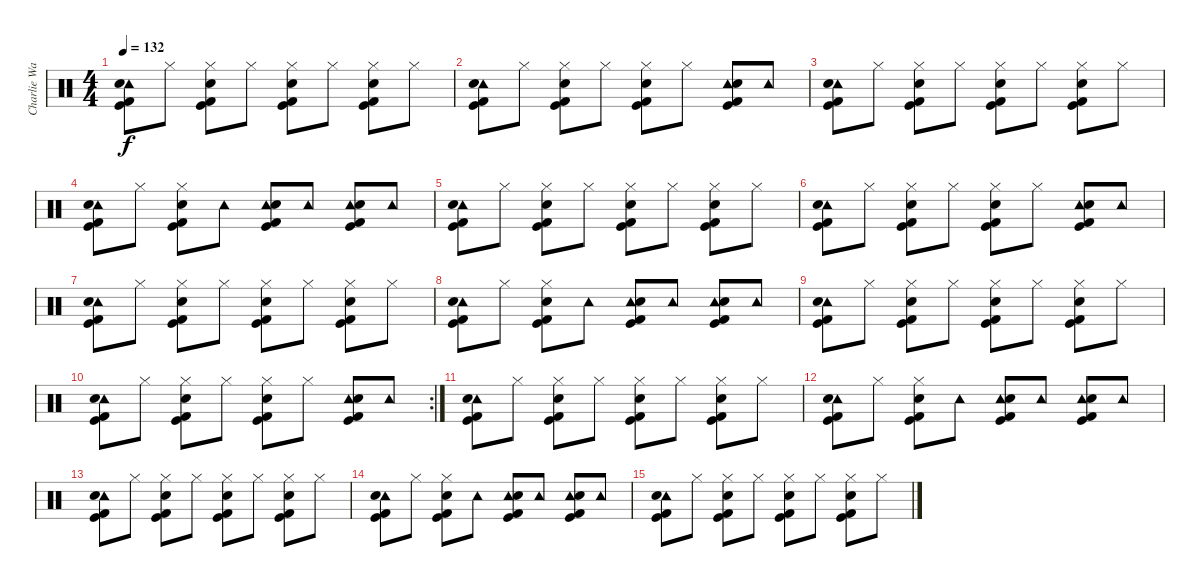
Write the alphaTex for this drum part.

\track ("Charlie Watts" "Charlie Wa") {instrument percussion}
\staff {score}
\articulation defaults
\ts (4 4)
\tempo 132
\clef neutral
\ks c
("Tambourine (hit)" "Electric Snare (hit)" "Kick (hit) 2" "Kick (hit)").8{dy f} "Hi-Hat (closed)".8 ("Hi-Hat (closed)" "Electric Snare (hit)" "Kick (hit) 2" "Kick (hit)").8 "Hi-Hat (closed)".8 ("Hi-Hat (closed)" "Electric Snare (hit)" "Kick (hit) 2" "Kick (hit)").8 "Hi-Hat (closed)".8 ("Hi-Hat (closed)" "Electric Snare (hit)" "Kick (hit) 2" "Kick (hit)").8 "Hi-Hat (closed)".8 |
("Tambourine (hit)" "Electric Snare (hit)" "Kick (hit) 2" "Kick (hit)").8 "Hi-Hat (closed)".8 ("Hi-Hat (closed)" "Electric Snare (hit)" "Kick (hit) 2" "Kick (hit)").8 "Hi-Hat (closed)".8 ("Hi-Hat (closed)" "Electric Snare (hit)" "Kick (hit) 2" "Kick (hit)").8 "Hi-Hat (closed)".8 ("Tambourine (hit)" "Electric Snare (hit)" "Kick (hit) 2" "Kick (hit)").8 "Tambourine (hit)".8 |
("Tambourine (hit)" "Electric Snare (hit)" "Kick (hit) 2" "Kick (hit)").8 "Hi-Hat (closed)".8 ("Hi-Hat (closed)" "Electric Snare (hit)" "Kick (hit) 2" "Kick (hit)").8 "Hi-Hat (closed)".8 ("Hi-Hat (closed)" "Electric Snare (hit)" "Kick (hit) 2" "Kick (hit)").8 "Hi-Hat (closed)".8 ("Hi-Hat (closed)" "Electric Snare (hit)" "Kick (hit) 2" "Kick (hit)").8 "Hi-Hat (closed)".8 |
("Tambourine (hit)" "Electric Snare (hit)" "Kick (hit) 2" "Kick (hit)").8 "Hi-Hat (closed)".8 ("Hi-Hat (closed)" "Electric Snare (hit)" "Kick (hit) 2" "Kick (hit)").8 "Tambourine (hit)".8 ("Tambourine (hit)" "Electric Snare (hit)" "Kick (hit) 2" "Kick (hit)").8 "Tambourine (hit)".8 ("Tambourine (hit)" "Electric Snare (hit)" "Kick (hit) 2" "Kick (hit)").8 "Tambourine (hit)".8 |
("Tambourine (hit)" "Electric Snare (hit)" "Kick (hit) 2" "Kick (hit)").8 "Hi-Hat (closed)".8 ("Hi-Hat (closed)" "Electric Snare (hit)" "Kick (hit) 2" "Kick (hit)").8 "Hi-Hat (closed)".8 ("Hi-Hat (closed)" "Electric Snare (hit)" "Kick (hit) 2" "Kick (hit)").8 "Hi-Hat (closed)".8 ("Hi-Hat (closed)" "Electric Snare (hit)" "Kick (hit) 2" "Kick (hit)").8 "Hi-Hat (closed)".8 |
("Tambourine (hit)" "Electric Snare (hit)" "Kick (hit) 2" "Kick (hit)").8 "Hi-Hat (closed)".8 ("Hi-Hat (closed)" "Electric Snare (hit)" "Kick (hit) 2" "Kick (hit)").8 "Hi-Hat (closed)".8 ("Hi-Hat (closed)" "Electric Snare (hit)" "Kick (hit) 2" "Kick (hit)").8 "Hi-Hat (closed)".8 ("Tambourine (hit)" "Electric Snare (hit)" "Kick (hit) 2" "Kick (hit)").8 "Tambourine (hit)".8 |
("Tambourine (hit)" "Electric Snare (hit)" "Kick (hit) 2" "Kick (hit)").8 "Hi-Hat (closed)".8 ("Hi-Hat (closed)" "Electric Snare (hit)" "Kick (hit) 2" "Kick (hit)").8 "Hi-Hat (closed)".8 ("Hi-Hat (closed)" "Electric Snare (hit)" "Kick (hit) 2" "Kick (hit)").8 "Hi-Hat (closed)".8 ("Hi-Hat (closed)" "Electric Snare (hit)" "Kick (hit) 2" "Kick (hit)").8 "Hi-Hat (closed)".8 |
("Tambourine (hit)" "Electric Snare (hit)" "Kick (hit) 2" "Kick (hit)").8 "Hi-Hat (closed)".8 ("Hi-Hat (closed)" "Electric Snare (hit)" "Kick (hit) 2" "Kick (hit)").8 "Tambourine (hit)".8 ("Tambourine (hit)" "Electric Snare (hit)" "Kick (hit) 2" "Kick (hit)").8 "Tambourine (hit)".8 ("Tambourine (hit)" "Electric Snare (hit)" "Kick (hit) 2" "Kick (hit)").8 "Tambourine (hit)".8 |
("Tambourine (hit)" "Electric Snare (hit)" "Kick (hit) 2" "Kick (hit)").8 "Hi-Hat (closed)".8 ("Hi-Hat (closed)" "Electric Snare (hit)" "Kick (hit) 2" "Kick (hit)").8 "Hi-Hat (closed)".8 ("Hi-Hat (closed)" "Electric Snare (hit)" "Kick (hit) 2" "Kick (hit)").8 "Hi-Hat (closed)".8 ("Hi-Hat (closed)" "Electric Snare (hit)" "Kick (hit) 2" "Kick (hit)").8 "Hi-Hat (closed)".8 |
\rc 2
("Tambourine (hit)" "Electric Snare (hit)" "Kick (hit) 2" "Kick (hit)").8 "Hi-Hat (closed)".8 ("Hi-Hat (closed)" "Electric Snare (hit)" "Kick (hit) 2" "Kick (hit)").8 "Hi-Hat (closed)".8 ("Hi-Hat (closed)" "Electric Snare (hit)" "Kick (hit) 2" "Kick (hit)").8 "Hi-Hat (closed)".8 ("Tambourine (hit)" "Electric Snare (hit)" "Kick (hit) 2" "Kick (hit)").8 "Tambourine (hit)".8 |
("Tambourine (hit)" "Electric Snare (hit)" "Kick (hit) 2" "Kick (hit)").8 "Hi-Hat (closed)".8 ("Hi-Hat (closed)" "Electric Snare (hit)" "Kick (hit) 2" "Kick (hit)").8 "Hi-Hat (closed)".8 ("Hi-Hat (closed)" "Electric Snare (hit)" "Kick (hit) 2" "Kick (hit)").8 "Hi-Hat (closed)".8 ("Hi-Hat (closed)" "Electric Snare (hit)" "Kick (hit) 2" "Kick (hit)").8 "Hi-Hat (closed)".8 |
("Tambourine (hit)" "Electric Snare (hit)" "Kick (hit) 2" "Kick (hit)").8 "Hi-Hat (closed)".8 ("Hi-Hat (closed)" "Electric Snare (hit)" "Kick (hit) 2" "Kick (hit)").8 "Tambourine (hit)".8 ("Tambourine (hit)" "Electric Snare (hit)" "Kick (hit) 2" "Kick (hit)").8 "Tambourine (hit)".8 ("Tambourine (hit)" "Electric Snare (hit)" "Kick (hit) 2" "Kick (hit)").8 "Tambourine (hit)".8 |
("Tambourine (hit)" "Electric Snare (hit)" "Kick (hit) 2" "Kick (hit)").8 "Hi-Hat (closed)".8 ("Hi-Hat (closed)" "Electric Snare (hit)" "Kick (hit) 2" "Kick (hit)").8 "Hi-Hat (closed)".8 ("Hi-Hat (closed)" "Electric Snare (hit)" "Kick (hit) 2" "Kick (hit)").8 "Hi-Hat (closed)".8 ("Hi-Hat (closed)" "Electric Snare (hit)" "Kick (hit) 2" "Kick (hit)").8 "Hi-Hat (closed)".8 |
("Tambourine (hit)" "Electric Snare (hit)" "Kick (hit) 2" "Kick (hit)").8 "Hi-Hat (closed)".8 ("Hi-Hat (closed)" "Electric Snare (hit)" "Kick (hit) 2" "Kick (hit)").8 "Tambourine (hit)".8 ("Tambourine (hit)" "Electric Snare (hit)" "Kick (hit) 2" "Kick (hit)").8 "Tambourine (hit)".8 ("Tambourine (hit)" "Electric Snare (hit)" "Kick (hit) 2" "Kick (hit)").8 "Tambourine (hit)".8 |
("Tambourine (hit)" "Electric Snare (hit)" "Kick (hit) 2" "Kick (hit)").8 "Hi-Hat (closed)".8 ("Hi-Hat (closed)" "Electric Snare (hit)" "Kick (hit) 2" "Kick (hit)").8 "Hi-Hat (closed)".8 ("Hi-Hat (closed)" "Electric Snare (hit)" "Kick (hit) 2" "Kick (hit)").8 "Hi-Hat (closed)".8 ("Hi-Hat (closed)" "Electric Snare (hit)" "Kick (hit) 2" "Kick (hit)").8 "Hi-Hat (closed)".8
